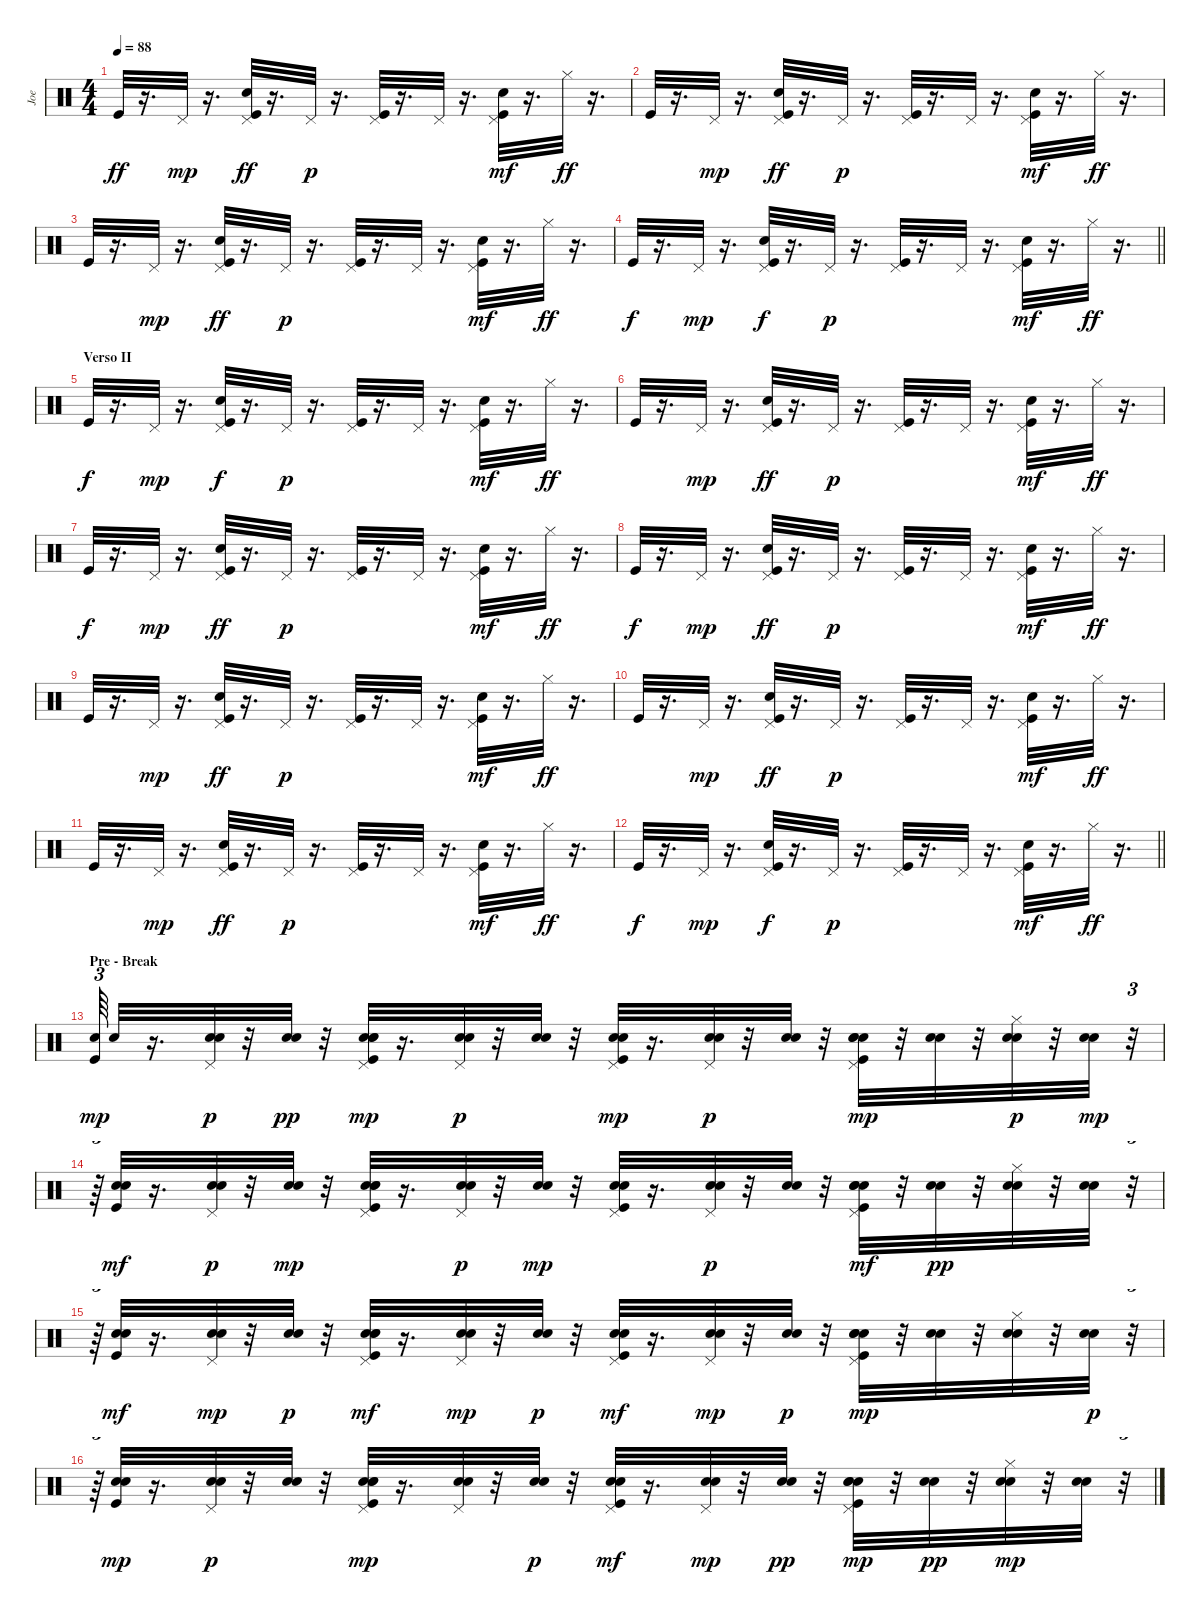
\track ("Joe" "Joe") {instrument percussion}
\staff {score}
\articulation defaults
\ts (4 4)
\tempo 88
\clef neutral
\ks c "Kick (hit)".32{dy ff}
r.16{d} "Pedal Hi-Hat (hit)".32{dy mp} r.16{d} ("Pedal Hi-Hat (hit)" "Kick (hit)" "Electric Snare (hit)").32{dy ff} r.16{d} "Pedal Hi-Hat (hit)".32{dy p} r.16{d} ("Kick (hit)" "Pedal Hi-Hat (hit)").32 r.16{d} "Pedal Hi-Hat (hit)".32 r.16{d} ("Kick (hit)" "Electric Snare (hit)" "Pedal Hi-Hat (hit)").32{dy mf} r.16{d} "Hi-Hat (closed)".32{dy ff} r.16{d} |
"Kick (hit)".32 r.16{d} "Pedal Hi-Hat (hit)".32{dy mp} r.16{d} ("Pedal Hi-Hat (hit)" "Kick (hit)" "Electric Snare (hit)").32{dy ff} r.16{d} "Pedal Hi-Hat (hit)".32{dy p} r.16{d} ("Kick (hit)" "Pedal Hi-Hat (hit)").32 r.16{d} "Pedal Hi-Hat (hit)".32 r.16{d} ("Kick (hit)" "Electric Snare (hit)" "Pedal Hi-Hat (hit)").32{dy mf} r.16{d} "Hi-Hat (closed)".32{dy ff} r.16{d} |
"Kick (hit)".32 r.16{d} "Pedal Hi-Hat (hit)".32{dy mp} r.16{d} ("Pedal Hi-Hat (hit)" "Kick (hit)" "Electric Snare (hit)").32{dy ff} r.16{d} "Pedal Hi-Hat (hit)".32{dy p} r.16{d} ("Kick (hit)" "Pedal Hi-Hat (hit)").32 r.16{d} "Pedal Hi-Hat (hit)".32 r.16{d} ("Kick (hit)" "Electric Snare (hit)" "Pedal Hi-Hat (hit)").32{dy mf} r.16{d} "Hi-Hat (closed)".32{dy ff} r.16{d} |
\barLineRight lightlight "Kick (hit)".32{dy f}
r.16{d} "Pedal Hi-Hat (hit)".32{dy mp} r.16{d} ("Pedal Hi-Hat (hit)" "Kick (hit)" "Electric Snare (hit)").32{dy f} r.16{d} "Pedal Hi-Hat (hit)".32{dy p} r.16{d} ("Kick (hit)" "Pedal Hi-Hat (hit)").32 r.16{d} "Pedal Hi-Hat (hit)".32 r.16{d} ("Kick (hit)" "Electric Snare (hit)" "Pedal Hi-Hat (hit)").32{dy mf} r.16{d} "Hi-Hat (closed)".32{dy ff} r.16{d} |
\section ("" "Verso II")
"Kick (hit)".32{dy f} r.16{d} "Pedal Hi-Hat (hit)".32{dy mp} r.16{d} ("Pedal Hi-Hat (hit)" "Kick (hit)" "Electric Snare (hit)").32{dy f} r.16{d} "Pedal Hi-Hat (hit)".32{dy p} r.16{d} ("Kick (hit)" "Pedal Hi-Hat (hit)").32 r.16{d} "Pedal Hi-Hat (hit)".32 r.16{d} ("Kick (hit)" "Electric Snare (hit)" "Pedal Hi-Hat (hit)").32{dy mf} r.16{d} "Hi-Hat (closed)".32{dy ff} r.16{d} |
"Kick (hit)".32 r.16{d} "Pedal Hi-Hat (hit)".32{dy mp} r.16{d} ("Pedal Hi-Hat (hit)" "Kick (hit)" "Electric Snare (hit)").32{dy ff} r.16{d} "Pedal Hi-Hat (hit)".32{dy p} r.16{d} ("Kick (hit)" "Pedal Hi-Hat (hit)").32 r.16{d} "Pedal Hi-Hat (hit)".32 r.16{d} ("Kick (hit)" "Electric Snare (hit)" "Pedal Hi-Hat (hit)").32{dy mf} r.16{d} "Hi-Hat (closed)".32{dy ff} r.16{d} |
"Kick (hit)".32{dy f} r.16{d} "Pedal Hi-Hat (hit)".32{dy mp} r.16{d} ("Pedal Hi-Hat (hit)" "Kick (hit)" "Electric Snare (hit)").32{dy ff} r.16{d} "Pedal Hi-Hat (hit)".32{dy p} r.16{d} ("Kick (hit)" "Pedal Hi-Hat (hit)").32 r.16{d} "Pedal Hi-Hat (hit)".32 r.16{d} ("Kick (hit)" "Electric Snare (hit)" "Pedal Hi-Hat (hit)").32{dy mf} r.16{d} "Hi-Hat (closed)".32{dy ff} r.16{d} |
"Kick (hit)".32{dy f} r.16{d} "Pedal Hi-Hat (hit)".32{dy mp} r.16{d} ("Pedal Hi-Hat (hit)" "Kick (hit)" "Electric Snare (hit)").32{dy ff} r.16{d} "Pedal Hi-Hat (hit)".32{dy p} r.16{d} ("Kick (hit)" "Pedal Hi-Hat (hit)").32 r.16{d} "Pedal Hi-Hat (hit)".32 r.16{d} ("Kick (hit)" "Electric Snare (hit)" "Pedal Hi-Hat (hit)").32{dy mf} r.16{d} "Hi-Hat (closed)".32{dy ff} r.16{d} |
"Kick (hit)".32 r.16{d} "Pedal Hi-Hat (hit)".32{dy mp} r.16{d} ("Pedal Hi-Hat (hit)" "Kick (hit)" "Electric Snare (hit)").32{dy ff} r.16{d} "Pedal Hi-Hat (hit)".32{dy p} r.16{d} ("Kick (hit)" "Pedal Hi-Hat (hit)").32 r.16{d} "Pedal Hi-Hat (hit)".32 r.16{d} ("Kick (hit)" "Electric Snare (hit)" "Pedal Hi-Hat (hit)").32{dy mf} r.16{d} "Hi-Hat (closed)".32{dy ff} r.16{d} |
"Kick (hit)".32 r.16{d} "Pedal Hi-Hat (hit)".32{dy mp} r.16{d} ("Pedal Hi-Hat (hit)" "Kick (hit)" "Electric Snare (hit)").32{dy ff} r.16{d} "Pedal Hi-Hat (hit)".32{dy p} r.16{d} ("Kick (hit)" "Pedal Hi-Hat (hit)").32 r.16{d} "Pedal Hi-Hat (hit)".32 r.16{d} ("Kick (hit)" "Electric Snare (hit)" "Pedal Hi-Hat (hit)").32{dy mf} r.16{d} "Hi-Hat (closed)".32{dy ff} r.16{d} |
"Kick (hit)".32 r.16{d} "Pedal Hi-Hat (hit)".32{dy mp} r.16{d} ("Pedal Hi-Hat (hit)" "Kick (hit)" "Electric Snare (hit)").32{dy ff} r.16{d} "Pedal Hi-Hat (hit)".32{dy p} r.16{d} ("Kick (hit)" "Pedal Hi-Hat (hit)").32 r.16{d} "Pedal Hi-Hat (hit)".32 r.16{d} ("Kick (hit)" "Electric Snare (hit)" "Pedal Hi-Hat (hit)").32{dy mf} r.16{d} "Hi-Hat (closed)".32{dy ff} r.16{d} |
\barLineRight lightlight "Kick (hit)".32{dy f}
r.16{d} "Pedal Hi-Hat (hit)".32{dy mp} r.16{d} ("Pedal Hi-Hat (hit)" "Kick (hit)" "Electric Snare (hit)").32{dy f} r.16{d} "Pedal Hi-Hat (hit)".32{dy p} r.16{d} ("Kick (hit)" "Pedal Hi-Hat (hit)").32 r.16{d} "Pedal Hi-Hat (hit)".32 r.16{d} ("Kick (hit)" "Electric Snare (hit)" "Pedal Hi-Hat (hit)").32{dy mf} r.16{d} "Hi-Hat (closed)".32{dy ff} r.16{d} |
\section ("" "Pre - Break")
("Snare (hit) 2" "Kick (hit)").64{tu (3 2) dy mp} "Snare (hit) 2".32 r.16{d} ("Pedal Hi-Hat (hit)" "Snare (hit) 2" "Snare (hit) 2").32{dy p} r.32 ("Snare (hit) 2" "Snare (hit) 2").32{dy pp} r.32 ("Pedal Hi-Hat (hit)" "Kick (hit)" "Electric Snare (hit)" "Snare (hit) 2" "Snare (hit) 2").32{dy mp} r.16{d} ("Pedal Hi-Hat (hit)" "Snare (hit) 2" "Snare (hit) 2").32{dy p} r.32 ("Snare (hit) 2" "Snare (hit) 2").32 r.32 ("Kick (hit)" "Pedal Hi-Hat (hit)" "Snare (hit) 2" "Snare (hit) 2").32{dy mp} r.16{d} ("Pedal Hi-Hat (hit)" "Snare (hit) 2" "Snare (hit) 2").32{dy p} r.32 ("Snare (hit) 2" "Snare (hit) 2").32 r.32 ("Kick (hit)" "Electric Snare (hit)" "Pedal Hi-Hat (hit)" "Snare (hit) 2" "Snare (hit) 2").32{dy mp} r.32 ("Snare (hit) 2" "Snare (hit) 2").32 r.32 ("Hi-Hat (closed)" "Snare (hit) 2" "Snare (hit) 2").32{dy p} r.32 ("Snare (hit) 2" "Snare (hit) 2").32{dy mp} r.32{tu (3 2)} |
r.64{tu (3 2)} ("Kick (hit)" "Snare (hit) 2" "Snare (hit) 2").32{dy mf} r.16{d} ("Pedal Hi-Hat (hit)" "Snare (hit) 2" "Snare (hit) 2").32{dy p} r.32 ("Snare (hit) 2" "Snare (hit) 2").32{dy mp} r.32 ("Pedal Hi-Hat (hit)" "Kick (hit)" "Electric Snare (hit)" "Snare (hit) 2" "Snare (hit) 2").32 r.16{d} ("Pedal Hi-Hat (hit)" "Snare (hit) 2" "Snare (hit) 2").32{dy p} r.32 ("Snare (hit) 2" "Snare (hit) 2").32{dy mp} r.32 ("Kick (hit)" "Pedal Hi-Hat (hit)" "Snare (hit) 2" "Snare (hit) 2").32 r.16{d} ("Pedal Hi-Hat (hit)" "Snare (hit) 2" "Snare (hit) 2").32{dy p} r.32 ("Snare (hit) 2" "Snare (hit) 2").32 r.32 ("Kick (hit)" "Electric Snare (hit)" "Pedal Hi-Hat (hit)" "Snare (hit) 2" "Snare (hit) 2").32{dy mf} r.32 ("Snare (hit) 2" "Snare (hit) 2").32{dy pp} r.32 ("Hi-Hat (closed)" "Snare (hit) 2" "Snare (hit) 2").32 r.32 ("Snare (hit) 2" "Snare (hit) 2").32 r.32{tu (3 2)} |
r.64{tu (3 2)} ("Kick (hit)" "Snare (hit) 2" "Snare (hit) 2").32{dy mf} r.16{d} ("Pedal Hi-Hat (hit)" "Snare (hit) 2" "Snare (hit) 2").32{dy mp} r.32 ("Snare (hit) 2" "Snare (hit) 2").32{dy p} r.32 ("Pedal Hi-Hat (hit)" "Kick (hit)" "Electric Snare (hit)" "Snare (hit) 2" "Snare (hit) 2").32{dy mf} r.16{d} ("Pedal Hi-Hat (hit)" "Snare (hit) 2" "Snare (hit) 2").32{dy mp} r.32 ("Snare (hit) 2" "Snare (hit) 2").32{dy p} r.32 ("Kick (hit)" "Pedal Hi-Hat (hit)" "Snare (hit) 2" "Snare (hit) 2").32{dy mf} r.16{d} ("Pedal Hi-Hat (hit)" "Snare (hit) 2" "Snare (hit) 2").32{dy mp} r.32 ("Snare (hit) 2" "Snare (hit) 2").32{dy p} r.32 ("Kick (hit)" "Electric Snare (hit)" "Pedal Hi-Hat (hit)" "Snare (hit) 2" "Snare (hit) 2").32{dy mp} r.32 ("Snare (hit) 2" "Snare (hit) 2").32 r.32 ("Hi-Hat (closed)" "Snare (hit) 2" "Snare (hit) 2").32 r.32 ("Snare (hit) 2" "Snare (hit) 2").32{dy p} r.32{tu (3 2)} |
r.64{tu (3 2)} ("Kick (hit)" "Snare (hit) 2" "Snare (hit) 2").32{dy mp} r.16{d} ("Pedal Hi-Hat (hit)" "Snare (hit) 2" "Snare (hit) 2").32{dy p} r.32 ("Snare (hit) 2" "Snare (hit) 2").32 r.32 ("Pedal Hi-Hat (hit)" "Kick (hit)" "Electric Snare (hit)" "Snare (hit) 2" "Snare (hit) 2").32{dy mp} r.16{d} ("Pedal Hi-Hat (hit)" "Snare (hit) 2" "Snare (hit) 2").32 r.32 ("Snare (hit) 2" "Snare (hit) 2").32{dy p} r.32 ("Kick (hit)" "Pedal Hi-Hat (hit)" "Snare (hit) 2" "Snare (hit) 2").32{dy mf} r.16{d} ("Pedal Hi-Hat (hit)" "Snare (hit) 2" "Snare (hit) 2").32{dy mp} r.32 ("Snare (hit) 2" "Snare (hit) 2").32{dy pp} r.32 ("Kick (hit)" "Electric Snare (hit)" "Pedal Hi-Hat (hit)" "Snare (hit) 2" "Snare (hit) 2").32{dy mp} r.32 ("Snare (hit) 2" "Snare (hit) 2").32{dy pp} r.32 ("Hi-Hat (closed)" "Snare (hit) 2" "Snare (hit) 2").32{dy mp} r.32 ("Snare (hit) 2" "Snare (hit) 2").32 r.32{tu (3 2)}
